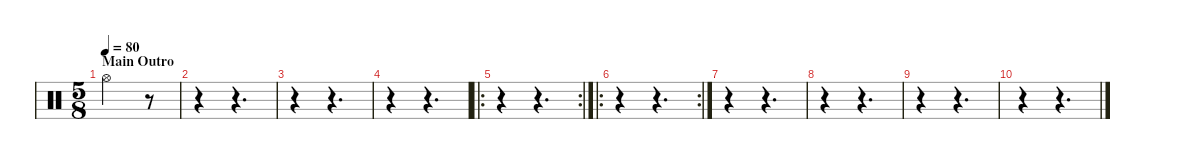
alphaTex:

\defaultSystemsLayout 4
\hideDynamics
\bracketExtendMode nobrackets
\singleTrackTrackNamePolicy hidden
\multiTrackTrackNamePolicy hidden
\firstSystemTrackNameMode fullname
\firstSystemTrackNameOrientation horizontal
\otherSystemsTrackNameOrientation horizontal
\track ("Martin Lopez" "drm.") {instrument percussion}
\staff {score}
\articulation defaults
\ts (5 8)
\section ("" "Main Outro")
\tempo 80
\clef neutral
\ks c "Hi-Hat (open)".2{dy f beam Down}
r.8{beam Down} |
r.4{beam Down} r.4{d beam Down} |
r.4{beam Down} r.4{d beam Down} |
r.4{beam Down} r.4{d beam Down} |
\ro
\rc 2
r.4{beam Down} r.4{d beam Down} |
\ro
\rc 2
r.4{beam Down} r.4{d beam Down} |
r.4{beam Down} r.4{d beam Down} |
r.4{beam Down} r.4{d beam Down} |
r.4{beam Down} r.4{d beam Down} |
r.4{beam Down} r.4{d beam Down}
